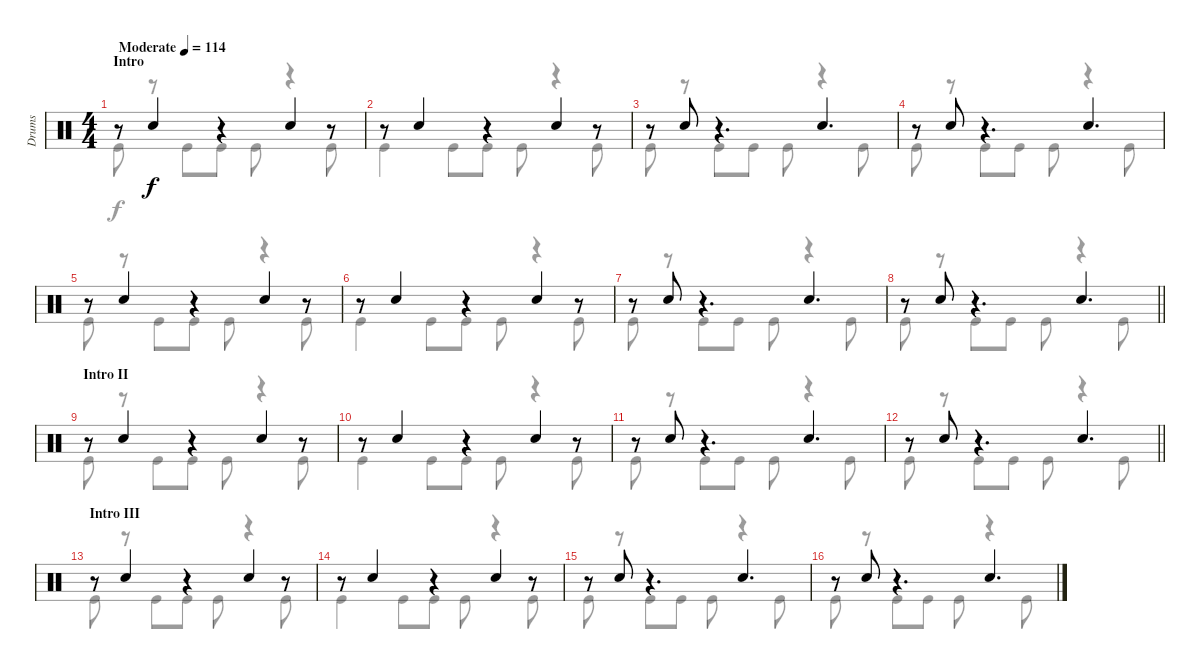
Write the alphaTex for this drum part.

\track ("Drums" "Drums") {instrument percussion}
\staff {score}
\articulation defaults
\voice
\ts (4 4)
\section ("" "Intro")
\tempo (114 "Moderate")
\clef neutral
\ks c
r.8{dy f} "Snare (hit) 2".4 r.4 "Snare (hit) 2".4 r.8 |
r.8 "Snare (hit) 2".4 r.4 "Snare (hit) 2".4 r.8 |
r.8 "Snare (hit) 2".8 r.4{d} "Snare (hit) 2".4{d} |
r.8 "Snare (hit) 2".8 r.4{d} "Snare (hit) 2".4{d} |
r.8 "Snare (hit) 2".4 r.4 "Snare (hit) 2".4 r.8 |
r.8 "Snare (hit) 2".4 r.4 "Snare (hit) 2".4 r.8 |
r.8 "Snare (hit) 2".8 r.4{d} "Snare (hit) 2".4{d} |
\barLineRight lightlight
r.8 "Snare (hit) 2".8 r.4{d} "Snare (hit) 2".4{d} |
\section ("" "Intro II")
r.8 "Snare (hit) 2".4 r.4 "Snare (hit) 2".4 r.8 |
r.8 "Snare (hit) 2".4 r.4 "Snare (hit) 2".4 r.8 |
r.8 "Snare (hit) 2".8 r.4{d} "Snare (hit) 2".4{d} |
\barLineRight lightlight
r.8 "Snare (hit) 2".8 r.4{d} "Snare (hit) 2".4{d} |
\section ("" "Intro III")
r.8 "Snare (hit) 2".4 r.4 "Snare (hit) 2".4 r.8 |
r.8 "Snare (hit) 2".4 r.4 "Snare (hit) 2".4 r.8 |
r.8 "Snare (hit) 2".8 r.4{d} "Snare (hit) 2".4{d} |
r.8 "Snare (hit) 2".8 r.4{d} "Snare (hit) 2".4{d}
\voice
\clef neutral
\ottava regular
\simile none
\ks c "Kick (hit)".8{dy f}
r.8 "Kick (hit)".8 "Kick (hit)".8 "Kick (hit)".8 r.4 "Kick (hit)".8 |
"Kick (hit)".4 "Kick (hit)".8 "Kick (hit)".8 "Kick (hit)".8 r.4 "Kick (hit)".8 |
"Kick (hit)".8 r.8 "Kick (hit)".8 "Kick (hit)".8 "Kick (hit)".8 r.4 "Kick (hit)".8 |
"Kick (hit)".8 r.8 "Kick (hit)".8 "Kick (hit)".8 "Kick (hit)".8 r.4 "Kick (hit)".8 |
"Kick (hit)".8 r.8 "Kick (hit)".8 "Kick (hit)".8 "Kick (hit)".8 r.4 "Kick (hit)".8 |
"Kick (hit)".4 "Kick (hit)".8 "Kick (hit)".8 "Kick (hit)".8 r.4 "Kick (hit)".8 |
"Kick (hit)".8 r.8 "Kick (hit)".8 "Kick (hit)".8 "Kick (hit)".8 r.4 "Kick (hit)".8 |
\barLineRight lightlight "Kick (hit)".8
r.8 "Kick (hit)".8 "Kick (hit)".8 "Kick (hit)".8 r.4 "Kick (hit)".8 |
"Kick (hit)".8 r.8 "Kick (hit)".8 "Kick (hit)".8 "Kick (hit)".8 r.4 "Kick (hit)".8 |
"Kick (hit)".4 "Kick (hit)".8 "Kick (hit)".8 "Kick (hit)".8 r.4 "Kick (hit)".8 |
"Kick (hit)".8 r.8 "Kick (hit)".8 "Kick (hit)".8 "Kick (hit)".8 r.4 "Kick (hit)".8 |
\barLineRight lightlight "Kick (hit)".8
r.8 "Kick (hit)".8 "Kick (hit)".8 "Kick (hit)".8 r.4 "Kick (hit)".8 |
"Kick (hit)".8 r.8 "Kick (hit)".8 "Kick (hit)".8 "Kick (hit)".8 r.4 "Kick (hit)".8 |
"Kick (hit)".4 "Kick (hit)".8 "Kick (hit)".8 "Kick (hit)".8 r.4 "Kick (hit)".8 |
"Kick (hit)".8 r.8 "Kick (hit)".8 "Kick (hit)".8 "Kick (hit)".8 r.4 "Kick (hit)".8 |
"Kick (hit)".8 r.8 "Kick (hit)".8 "Kick (hit)".8 "Kick (hit)".8 r.4 "Kick (hit)".8
